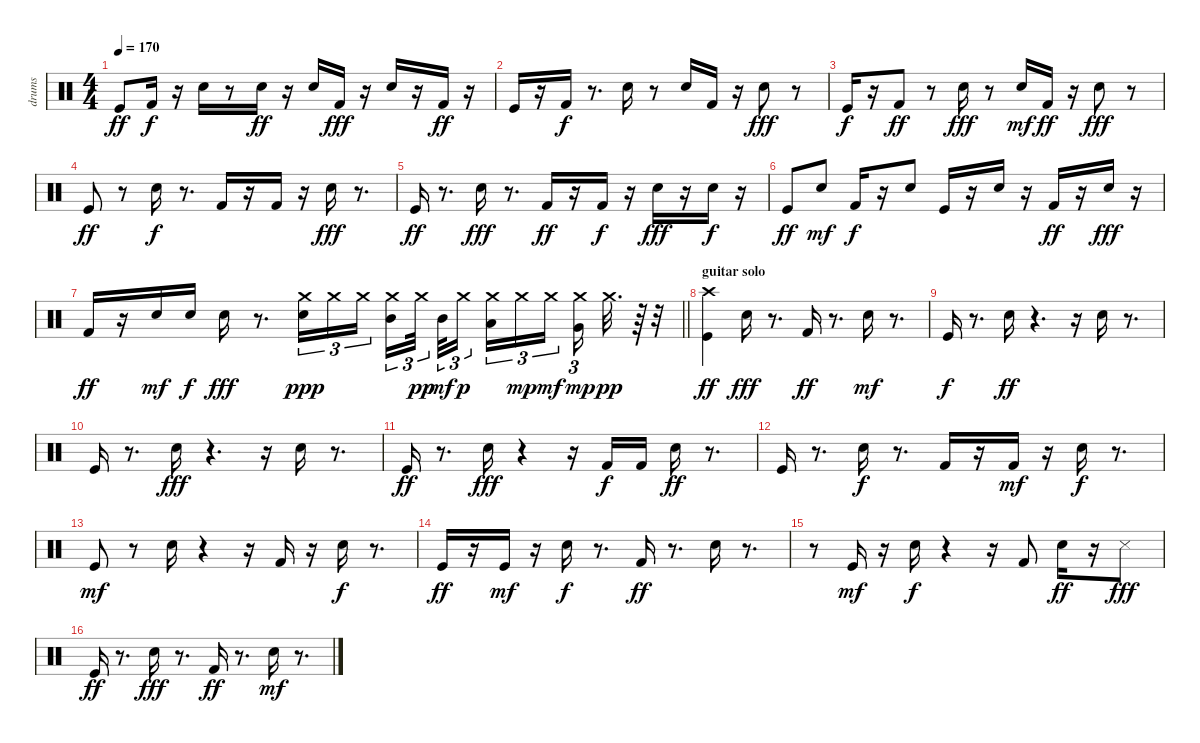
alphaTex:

\track ("drums" "drums") {instrument percussion}
\staff {score}
\articulation defaults
\ts (4 4)
\tempo 170
\clef neutral
\ks c "Kick (hit)".8{dy ff} "Kick (hit) 2".16{dy f}
r.16 "Snare (hit) 2".16 r.8 "Electric Snare (hit)".16{dy ff} r.16 "Electric Snare (hit)".16 "Kick (hit) 2".16{dy fff} r.16 "Snare (hit) 2".16 r.16 "Kick (hit) 2".16{dy ff} r.16 |
"Kick (hit)".16 r.16 "Kick (hit) 2".16{dy f} r.8{d} "Electric Snare (hit)".16 r.8 "Electric Snare (hit)".16 "Kick (hit) 2".16 r.16 "Electric Snare (hit)".8{dy fff} r.8 |
"Kick (hit)".16{dy f} r.16 "Kick (hit) 2".8{dy ff} r.8 "Hand Clap (hit)".16{dy fff} r.8 "Hand Clap (hit)".16{dy mf} "Kick (hit) 2".16{dy ff} r.16 "Hand Clap (hit)".8{dy fff} r.8 |
"Kick (hit)".8{dy ff} r.8 "Snare (hit) 2".16{dy f} r.8{d} "Kick (hit) 2".16 r.16 "Kick (hit) 2".16 r.16 "Snare (hit) 2".16{dy fff} r.8{d} |
"Kick (hit)".16{dy ff} r.8{d} "Snare (hit) 2".16{dy fff} r.8{d} "Kick (hit) 2".16{dy ff} r.16 "Kick (hit) 2".16{dy f} r.16 "Electric Snare (hit)".16{dy fff} r.16 "Snare (hit) 2".16{dy f} r.16 |
"Kick (hit)".8{dy ff} "Snare (hit) 2".8{dy mf} "Kick (hit) 2".16{dy f} r.16 "Snare (hit) 2".8 "Kick (hit)".16 r.16 "Snare (hit) 2".16 r.16 "Kick (hit) 2".16{dy ff} r.16 "Snare (hit) 2".16{dy fff} r.16 |
\barLineRight lightlight "Kick (hit) 2".16{dy ff}
r.16 "Electric Snare (hit)".16{dy mf} "Electric Snare (hit)".16{dy f} "Snare (hit) 2".16{dy fff} r.8{d} ("Electric Snare (hit)" "Crash medium (hit)").16{tu (3 2) dy ppp} "Crash medium (hit)".16{tu (3 2)} "Crash medium (hit)".16{tu (3 2)} ("Mid Tom (hit)" "Crash medium (hit)").16{tu (3 2)} "Crash medium (hit)".32{tu (3 2) dy pp} "Mid Tom (hit)".32{tu (3 2) dy mf} "Crash medium (hit)".16{tu (3 2) dy p} ("Low Tom (hit)" "Crash medium (hit)").16{tu (3 2)} "Crash medium (hit)".16{tu (3 2) dy mp} "Crash medium (hit)".16{tu (3 2) dy mf} ("Very Low Tom (hit)" "Crash medium (hit)").16{tu (3 2) dy mp} "Crash medium (hit)".32{d dy pp} r.64 r.32 |
\section ("" "guitar solo")
("Kick (hit)" "Crash high (hit)").4{dy ff} "Snare (hit) 2".16{dy fff} r.8{d} "Kick (hit) 2".16{dy ff} r.8{d} "Electric Snare (hit)".16{dy mf} r.8{d} |
"Kick (hit)".16{dy f} r.8{d} "Snare (hit) 2".16{dy ff} r.4{d} r.16 "Electric Snare (hit)".16 r.8{d} |
"Kick (hit)".16 r.8{d} "Snare (hit) 2".16{dy fff} r.4{d} r.16 "Electric Snare (hit)".16 r.8{d} |
"Kick (hit)".16{dy ff} r.8{d} "Snare (hit) 2".16{dy fff} r.4 r.16 "Kick (hit) 2".16{dy f} "Kick (hit) 2".16 "Electric Snare (hit)".16{dy ff} r.8{d} |
"Kick (hit)".16 r.8{d} "Snare (hit) 2".16{dy f} r.8{d} "Kick (hit) 2".16 r.16 "Kick (hit) 2".16{dy mf} r.16 "Snare (hit) 2".16{dy f} r.8{d} |
"Kick (hit)".8{dy mf} r.8 "Snare (hit) 2".16 r.4 r.16 "Kick (hit) 2".16 r.16 "Electric Snare (hit)".16{dy f} r.8{d} |
"Kick (hit)".16{dy ff} r.16 "Kick (hit)".16{dy mf} r.16 "Snare (hit) 2".16{dy f} r.8{d} "Kick (hit) 2".16{dy ff} r.8{d} "Electric Snare (hit)".16 r.8{d} |
r.8 "Kick (hit)".16{dy mf} r.16 "Snare (hit) 2".16{dy f} r.4 r.16 "Kick (hit) 2".8 "Electric Snare (hit)".16{dy ff} r.16 "Snare (side stick) 3".8{dy fff} |
"Kick (hit)".16{dy ff} r.8{d} "Snare (hit) 2".16{dy fff} r.8{d} "Kick (hit) 2".16{dy ff} r.8{d} "Electric Snare (hit)".16{dy mf} r.8{d}
